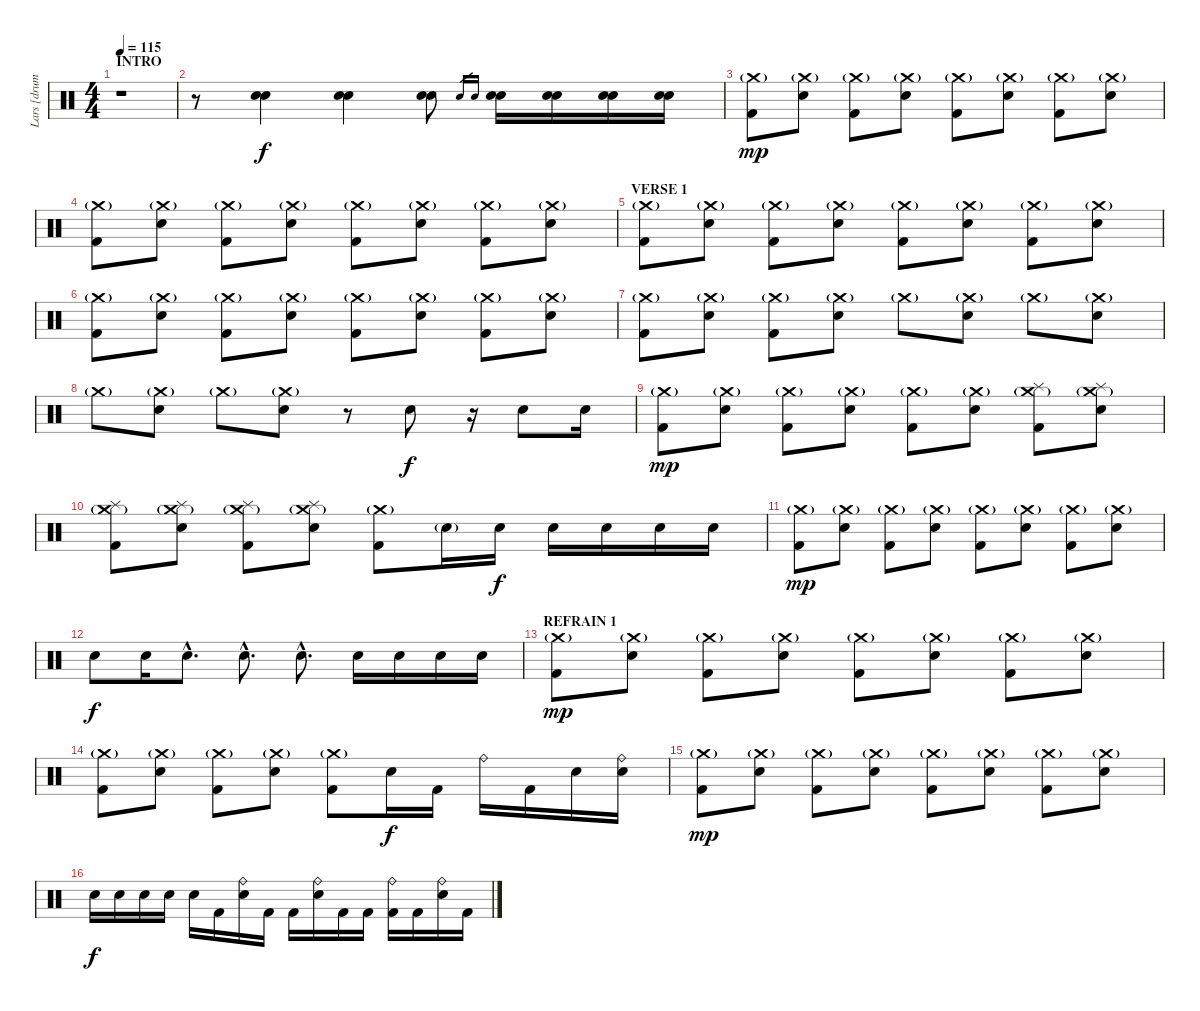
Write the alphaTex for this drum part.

\track ("Lars [drums]" "Lars [drum") {instrument percussion}
\staff {score}
\articulation defaults
\ts (4 4)
\section ("" "INTRO")
\tempo 115
\clef neutral
\ks c
r.1{dy f} |
r.8 ("Snare (hit) 2" "Electric Snare (hit)").4 ("Snare (hit) 2" "Electric Snare (hit)").4 ("Snare (hit) 2" "Electric Snare (hit)").8 "Snare (hit) 2".16{gr} "Electric Snare (hit)".16{gr} ("Snare (hit) 2" "Electric Snare (hit)").16 ("Snare (hit) 2" "Electric Snare (hit)").16 ("Snare (hit) 2" "Electric Snare (hit)").16 ("Snare (hit) 2" "Electric Snare (hit)").16 |
("Kick (hit) 2" "Crash medium (hit)"{g}).8{dy mp} ("Snare (hit) 2" "Crash medium (hit)"{g}).8 ("Kick (hit) 2" "Crash medium (hit)"{g}).8 ("Snare (hit) 2" "Crash medium (hit)"{g}).8 ("Kick (hit) 2" "Crash medium (hit)"{g}).8 ("Snare (hit) 2" "Crash medium (hit)"{g}).8 ("Kick (hit) 2" "Crash medium (hit)"{g}).8 ("Snare (hit) 2" "Crash medium (hit)"{g}).8 |
("Kick (hit) 2" "Crash medium (hit)"{g}).8 ("Snare (hit) 2" "Crash medium (hit)"{g}).8 ("Kick (hit) 2" "Crash medium (hit)"{g}).8 ("Snare (hit) 2" "Crash medium (hit)"{g}).8 ("Kick (hit) 2" "Crash medium (hit)"{g}).8 ("Snare (hit) 2" "Crash medium (hit)"{g}).8 ("Kick (hit) 2" "Crash medium (hit)"{g}).8 ("Snare (hit) 2" "Crash medium (hit)"{g}).8 |
\section ("" "VERSE 1")
("Kick (hit) 2" "Crash medium (hit)"{g}).8 ("Snare (hit) 2" "Crash medium (hit)"{g}).8 ("Kick (hit) 2" "Crash medium (hit)"{g}).8 ("Snare (hit) 2" "Crash medium (hit)"{g}).8 ("Kick (hit) 2" "Crash medium (hit)"{g}).8 ("Snare (hit) 2" "Crash medium (hit)"{g}).8 ("Kick (hit) 2" "Crash medium (hit)"{g}).8 ("Snare (hit) 2" "Crash medium (hit)"{g}).8 |
("Kick (hit) 2" "Crash medium (hit)"{g}).8 ("Snare (hit) 2" "Crash medium (hit)"{g}).8 ("Kick (hit) 2" "Crash medium (hit)"{g}).8 ("Snare (hit) 2" "Crash medium (hit)"{g}).8 ("Kick (hit) 2" "Crash medium (hit)"{g}).8 ("Snare (hit) 2" "Crash medium (hit)"{g}).8 ("Kick (hit) 2" "Crash medium (hit)"{g}).8 ("Snare (hit) 2" "Crash medium (hit)"{g}).8 |
("Kick (hit) 2" "Crash medium (hit)"{g}).8 ("Snare (hit) 2" "Crash medium (hit)"{g}).8 ("Kick (hit) 2" "Crash medium (hit)"{g}).8 ("Snare (hit) 2" "Crash medium (hit)"{g}).8 "Crash medium (hit)"{g}.8 ("Snare (hit) 2" "Crash medium (hit)"{g}).8 "Crash medium (hit)"{g}.8 ("Snare (hit) 2" "Crash medium (hit)"{g}).8 |
"Crash medium (hit)"{g}.8 ("Snare (hit) 2" "Crash medium (hit)"{g}).8 "Crash medium (hit)"{g}.8 ("Snare (hit) 2" "Crash medium (hit)"{g}).8 r.8 "Snare (hit) 2".8{dy f} r.16 "Snare (hit) 2".8 "Snare (hit) 2".16 |
("Kick (hit) 2" "Crash medium (hit)"{g}).8{dy mp} ("Snare (hit) 2" "Crash medium (hit)"{g}).8 ("Kick (hit) 2" "Crash medium (hit)"{g}).8 ("Snare (hit) 2" "Crash medium (hit)"{g}).8 ("Kick (hit) 2" "Crash medium (hit)"{g}).8 ("Snare (hit) 2" "Crash medium (hit)"{g}).8 ("Kick (hit) 2" "Splash (hit)" "Crash medium (hit)"{g}).8 ("Snare (hit) 2" "Splash (hit)" "Crash medium (hit)"{g}).8 |
("Kick (hit) 2" "Splash (hit)" "Crash medium (hit)"{g}).8 ("Snare (hit) 2" "Splash (hit)" "Crash medium (hit)"{g}).8 ("Kick (hit) 2" "Splash (hit)" "Crash medium (hit)"{g}).8 ("Snare (hit) 2" "Splash (hit)" "Crash medium (hit)"{g}).8 ("Kick (hit) 2" "Crash medium (hit)"{g}).8 "Snare (hit) 2"{g}.16 "Snare (hit) 2".16{dy f} "Snare (hit) 2".16 "Snare (hit) 2".16 "Snare (hit) 2".16 "Snare (hit) 2".16 |
("Kick (hit) 2" "Crash medium (hit)"{g}).8{dy mp} ("Snare (hit) 2" "Crash medium (hit)"{g}).8 ("Kick (hit) 2" "Crash medium (hit)"{g}).8 ("Snare (hit) 2" "Crash medium (hit)"{g}).8 ("Kick (hit) 2" "Crash medium (hit)"{g}).8 ("Snare (hit) 2" "Crash medium (hit)"{g}).8 ("Kick (hit) 2" "Crash medium (hit)"{g}).8 ("Snare (hit) 2" "Crash medium (hit)"{g}).8 |
"Snare (hit) 2".8{dy f} "Snare (hit) 2".16 "Snare (hit) 2"{hac}.8{d} "Snare (hit) 2"{hac}.8{d} "Snare (hit) 2"{hac}.8{d} "Snare (hit) 2".16 "Snare (hit) 2".16 "Snare (hit) 2".16 "Snare (hit) 2".16 |
\section ("" "REFRAIN 1")
("Kick (hit) 2" "Crash medium (hit)"{g}).8{dy mp} ("Snare (hit) 2" "Crash medium (hit)"{g}).8 ("Kick (hit) 2" "Crash medium (hit)"{g}).8 ("Snare (hit) 2" "Crash medium (hit)"{g}).8 ("Kick (hit) 2" "Crash medium (hit)"{g}).8 ("Snare (hit) 2" "Crash medium (hit)"{g}).8 ("Kick (hit) 2" "Crash medium (hit)"{g}).8 ("Snare (hit) 2" "Crash medium (hit)"{g}).8 |
("Kick (hit) 2" "Crash medium (hit)"{g}).8 ("Snare (hit) 2" "Crash medium (hit)"{g}).8 ("Kick (hit) 2" "Crash medium (hit)"{g}).8 ("Snare (hit) 2" "Crash medium (hit)"{g}).8 ("Kick (hit) 2" "Crash medium (hit)"{g}).8 "Snare (hit) 2".16{dy f} "Kick (hit) 2".16 "Ride (bell)".16 "Kick (hit) 2".16 "Snare (hit) 2".16 ("Snare (hit) 2" "Ride (bell)").16 |
("Kick (hit) 2" "Crash medium (hit)"{g}).8{dy mp} ("Snare (hit) 2" "Crash medium (hit)"{g}).8 ("Kick (hit) 2" "Crash medium (hit)"{g}).8 ("Snare (hit) 2" "Crash medium (hit)"{g}).8 ("Kick (hit) 2" "Crash medium (hit)"{g}).8 ("Snare (hit) 2" "Crash medium (hit)"{g}).8 ("Kick (hit) 2" "Crash medium (hit)"{g}).8 ("Snare (hit) 2" "Crash medium (hit)"{g}).8 |
"Snare (hit) 2".16{dy f} "Snare (hit) 2".16 "Snare (hit) 2".16 "Snare (hit) 2".16 "Snare (hit) 2".16 "Kick (hit) 2".16 ("Snare (hit) 2" "Ride (bell)").16 "Kick (hit) 2".16 "Kick (hit) 2".16 ("Snare (hit) 2" "Ride (bell)").16 "Kick (hit) 2".16 "Kick (hit) 2".16 ("Kick (hit) 2" "Ride (bell)").16 "Kick (hit) 2".16 ("Snare (hit) 2" "Ride (bell)").16 "Kick (hit) 2".16
